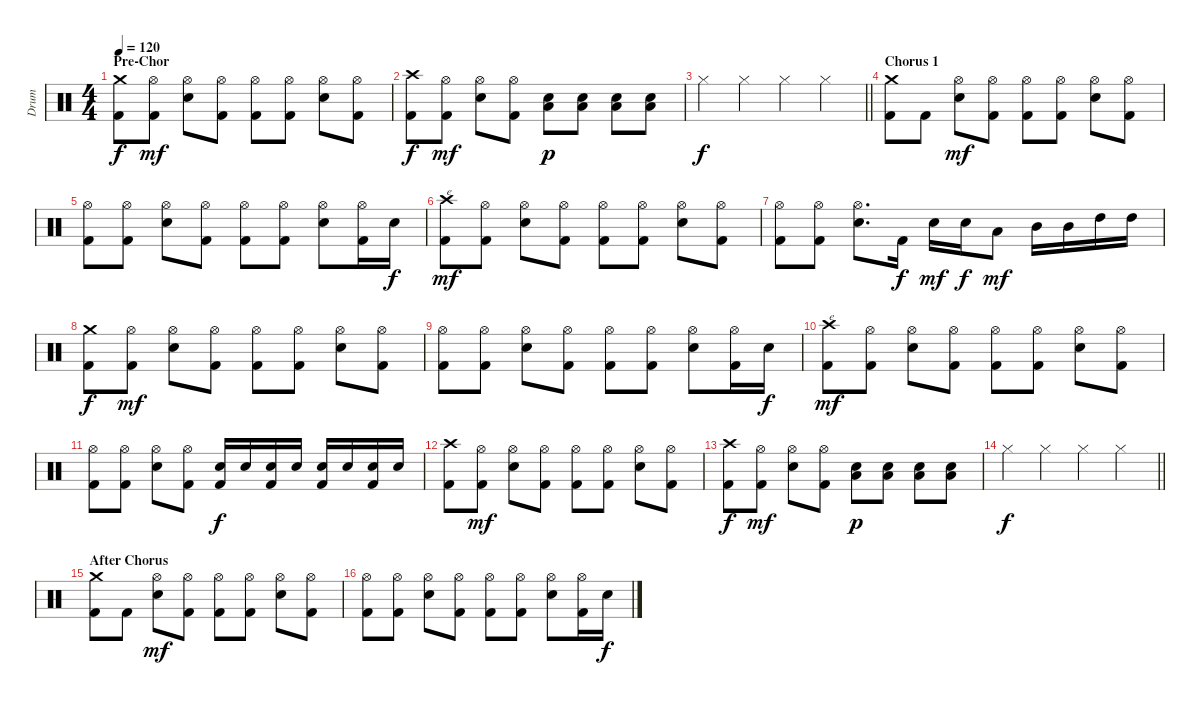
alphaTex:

\track ("Drum" "Drum") {instrument percussion}
\staff {score}
\articulation defaults
\ts (4 4)
\section ("" "Pre-Chor")
\tempo 120
\clef neutral
\ks c
("Crash medium (hit)" "Kick (hit) 2").8{dy f} ("Hi-Hat (open)" "Kick (hit) 2").8{dy mf} ("Hi-Hat (open)" "Snare (hit) 2").8 ("Hi-Hat (open)" "Kick (hit) 2").8 ("Hi-Hat (open)" "Kick (hit) 2").8 ("Hi-Hat (open)" "Kick (hit) 2").8 ("Hi-Hat (open)" "Snare (hit) 2").8 ("Hi-Hat (open)" "Kick (hit) 2").8 |
("Crash high (hit)" "Kick (hit) 2").8{dy f} ("Hi-Hat (open)" "Kick (hit) 2").8{dy mf} ("Hi-Hat (open)" "Snare (hit) 2").8 ("Hi-Hat (open)" "Kick (hit) 2").8 ("Low Floor Tom (hit)" "Snare (hit) 2").8{dy p} ("Low Floor Tom (hit)" "Snare (hit) 2").8 ("Low Floor Tom (hit)" "Snare (hit) 2").8 ("Low Floor Tom (hit)" "Snare (hit) 2").8 |
\barLineRight lightlight "Hi-Hat (closed)".4{dy f} "Hi-Hat (closed)".4 "Hi-Hat (closed)".4 "Hi-Hat (closed)".4
|
\section ("" "Chorus 1")
("Crash medium (hit)" "Kick (hit) 2").8 "Kick (hit) 2".8 ("Hi-Hat (open)" "Snare (hit) 2").8{dy mf} ("Hi-Hat (open)" "Kick (hit) 2").8 ("Hi-Hat (open)" "Kick (hit) 2").8 ("Hi-Hat (open)" "Kick (hit) 2").8 ("Hi-Hat (open)" "Snare (hit) 2").8 ("Hi-Hat (open)" "Kick (hit) 2").8 |
("Hi-Hat (open)" "Kick (hit) 2").8 ("Hi-Hat (open)" "Kick (hit) 2").8 ("Hi-Hat (open)" "Snare (hit) 2").8 ("Hi-Hat (open)" "Kick (hit) 2").8 ("Hi-Hat (open)" "Kick (hit) 2").8 ("Hi-Hat (open)" "Kick (hit) 2").8 ("Hi-Hat (open)" "Snare (hit) 2").8 ("Hi-Hat (open)" "Kick (hit) 2").16 "Snare (hit) 2".16{dy f} |
("Crash high (hit)" "Kick (hit) 2").8{txt "e" dy mf} ("Hi-Hat (open)" "Kick (hit) 2").8 ("Hi-Hat (open)" "Snare (hit) 2").8 ("Hi-Hat (open)" "Kick (hit) 2").8 ("Hi-Hat (open)" "Kick (hit) 2").8 ("Hi-Hat (open)" "Kick (hit) 2").8 ("Hi-Hat (open)" "Snare (hit) 2").8 ("Hi-Hat (open)" "Kick (hit) 2").8 |
("Hi-Hat (open)" "Kick (hit) 2").8 ("Hi-Hat (open)" "Kick (hit) 2").8 ("Hi-Hat (open)" "Snare (hit) 2").8{d} "Kick (hit) 2".16{dy f} "Snare (hit) 2".16{dy mf} "Snare (hit) 2".16{dy f} "Low Tom (hit)".8{dy mf} "Mid Tom (hit)".16 "Mid Tom (hit)".16 "High Tom (hit)".16 "High Tom (hit)".16 |
("Crash medium (hit)" "Kick (hit) 2").8{dy f} ("Hi-Hat (open)" "Kick (hit) 2").8{dy mf} ("Hi-Hat (open)" "Snare (hit) 2").8 ("Hi-Hat (open)" "Kick (hit) 2").8 ("Hi-Hat (open)" "Kick (hit) 2").8 ("Hi-Hat (open)" "Kick (hit) 2").8 ("Hi-Hat (open)" "Snare (hit) 2").8 ("Hi-Hat (open)" "Kick (hit) 2").8 |
("Hi-Hat (open)" "Kick (hit) 2").8 ("Hi-Hat (open)" "Kick (hit) 2").8 ("Hi-Hat (open)" "Snare (hit) 2").8 ("Hi-Hat (open)" "Kick (hit) 2").8 ("Hi-Hat (open)" "Kick (hit) 2").8 ("Hi-Hat (open)" "Kick (hit) 2").8 ("Hi-Hat (open)" "Snare (hit) 2").8 ("Hi-Hat (open)" "Kick (hit) 2").16 "Snare (hit) 2".16{dy f} |
("Crash high (hit)" "Kick (hit) 2").8{txt "e" dy mf} ("Hi-Hat (open)" "Kick (hit) 2").8 ("Hi-Hat (open)" "Snare (hit) 2").8 ("Hi-Hat (open)" "Kick (hit) 2").8 ("Hi-Hat (open)" "Kick (hit) 2").8 ("Hi-Hat (open)" "Kick (hit) 2").8 ("Hi-Hat (open)" "Snare (hit) 2").8 ("Hi-Hat (open)" "Kick (hit) 2").8 |
("Hi-Hat (open)" "Kick (hit) 2").8 ("Hi-Hat (open)" "Kick (hit) 2").8 ("Hi-Hat (open)" "Snare (hit) 2").8 ("Hi-Hat (open)" "Kick (hit) 2").8 ("Snare (hit) 2" "Kick (hit) 2").16{dy f} "Snare (hit) 2".16 ("Snare (hit) 2" "Kick (hit) 2").16 "Snare (hit) 2".16 ("Snare (hit) 2" "Kick (hit) 2").16 "Snare (hit) 2".16 ("Snare (hit) 2" "Kick (hit) 2").16 "Snare (hit) 2".16 |
("Crash high (hit)" "Kick (hit) 2").8 ("Hi-Hat (open)" "Kick (hit) 2").8{dy mf} ("Hi-Hat (open)" "Snare (hit) 2").8 ("Hi-Hat (open)" "Kick (hit) 2").8 ("Hi-Hat (open)" "Kick (hit) 2").8 ("Hi-Hat (open)" "Kick (hit) 2").8 ("Hi-Hat (open)" "Snare (hit) 2").8 ("Hi-Hat (open)" "Kick (hit) 2").8 |
("Crash high (hit)" "Kick (hit) 2").8{dy f} ("Hi-Hat (open)" "Kick (hit) 2").8{dy mf} ("Hi-Hat (open)" "Snare (hit) 2").8 ("Hi-Hat (open)" "Kick (hit) 2").8 ("Low Floor Tom (hit)" "Snare (hit) 2").8{dy p} ("Low Floor Tom (hit)" "Snare (hit) 2").8 ("Low Floor Tom (hit)" "Snare (hit) 2").8 ("Low Floor Tom (hit)" "Snare (hit) 2").8 |
\barLineRight lightlight "Hi-Hat (closed)".4{dy f} "Hi-Hat (closed)".4 "Hi-Hat (closed)".4 "Hi-Hat (closed)".4
|
\section ("" "After Chorus")
("Crash medium (hit)" "Kick (hit) 2").8 "Kick (hit) 2".8 ("Hi-Hat (open)" "Snare (hit) 2").8{dy mf} ("Hi-Hat (open)" "Kick (hit) 2").8 ("Hi-Hat (open)" "Kick (hit) 2").8 ("Hi-Hat (open)" "Kick (hit) 2").8 ("Hi-Hat (open)" "Snare (hit) 2").8 ("Hi-Hat (open)" "Kick (hit) 2").8 |
("Hi-Hat (open)" "Kick (hit) 2").8 ("Hi-Hat (open)" "Kick (hit) 2").8 ("Hi-Hat (open)" "Snare (hit) 2").8 ("Hi-Hat (open)" "Kick (hit) 2").8 ("Hi-Hat (open)" "Kick (hit) 2").8 ("Hi-Hat (open)" "Kick (hit) 2").8 ("Hi-Hat (open)" "Snare (hit) 2").8 ("Hi-Hat (open)" "Kick (hit) 2").16 "Snare (hit) 2".16{dy f}
